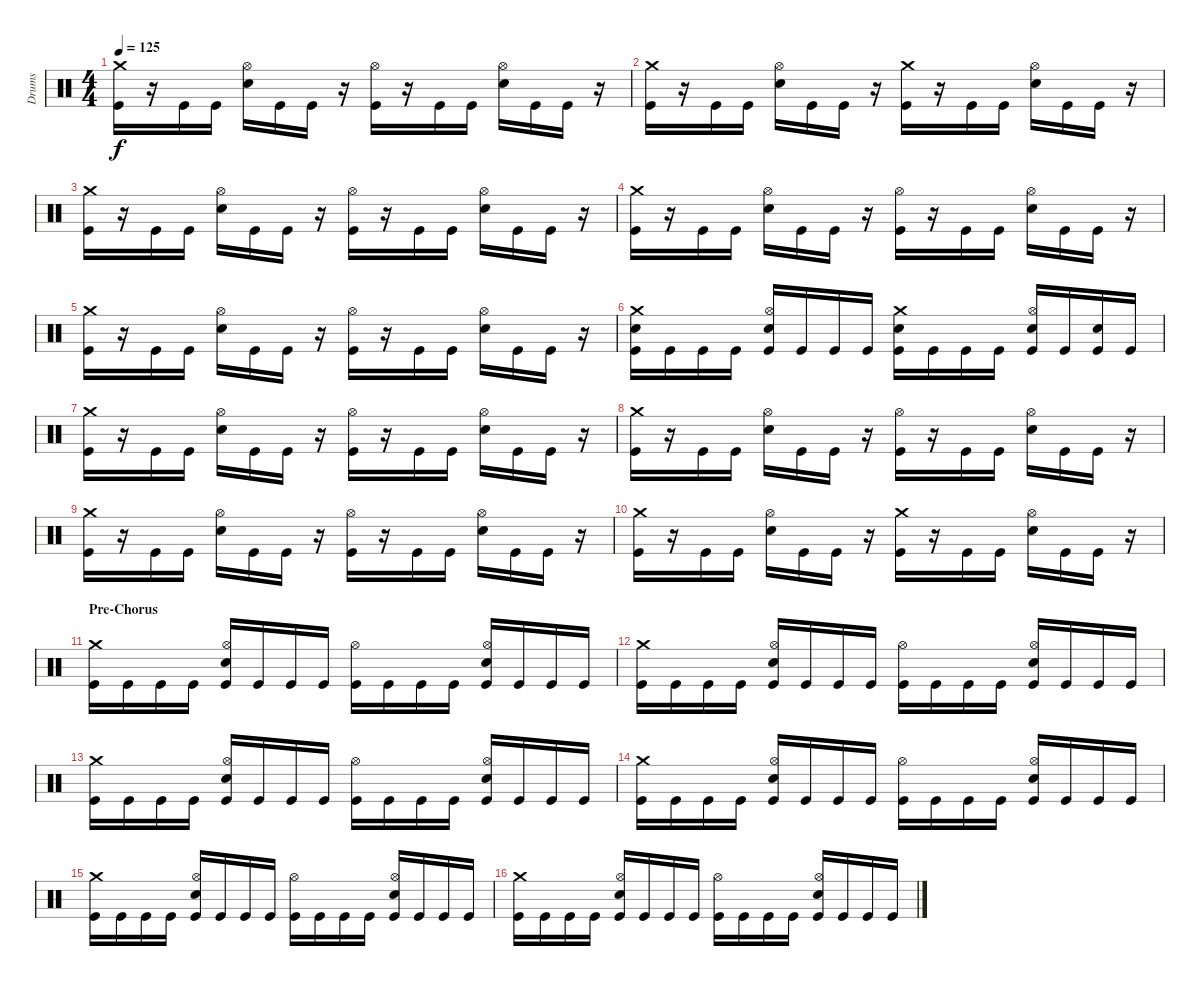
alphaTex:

\track ("Drums" "Drums") {instrument percussion}
\staff {score}
\articulation defaults
\ts (4 4)
\tempo 125
\clef neutral
\ks c
("Crash medium (hit)" "Kick (hit)").16{dy f} r.16 "Kick (hit)".16 "Kick (hit)".16 ("Hi-Hat (open)" "Electric Snare (hit)").16 "Kick (hit)".16 "Kick (hit)".16 r.16 ("Hi-Hat (open)" "Kick (hit)").16 r.16 "Kick (hit)".16 "Kick (hit)".16 ("Hi-Hat (open)" "Electric Snare (hit)").16 "Kick (hit)".16 "Kick (hit)".16 r.16 |
("Crash medium (hit)" "Kick (hit)").16 r.16 "Kick (hit)".16 "Kick (hit)".16 ("Hi-Hat (open)" "Electric Snare (hit)").16 "Kick (hit)".16 "Kick (hit)".16 r.16 ("Crash medium (hit)" "Kick (hit)").16 r.16 "Kick (hit)".16 "Kick (hit)".16 ("Hi-Hat (open)" "Electric Snare (hit)").16 "Kick (hit)".16 "Kick (hit)".16 r.16 |
("Crash medium (hit)" "Kick (hit)").16 r.16 "Kick (hit)".16 "Kick (hit)".16 ("Hi-Hat (open)" "Electric Snare (hit)").16 "Kick (hit)".16 "Kick (hit)".16 r.16 ("Hi-Hat (open)" "Kick (hit)").16 r.16 "Kick (hit)".16 "Kick (hit)".16 ("Hi-Hat (open)" "Electric Snare (hit)").16 "Kick (hit)".16 "Kick (hit)".16 r.16 |
("Crash medium (hit)" "Kick (hit)").16 r.16 "Kick (hit)".16 "Kick (hit)".16 ("Hi-Hat (open)" "Electric Snare (hit)").16 "Kick (hit)".16 "Kick (hit)".16 r.16 ("Hi-Hat (open)" "Kick (hit)").16 r.16 "Kick (hit)".16 "Kick (hit)".16 ("Hi-Hat (open)" "Electric Snare (hit)").16 "Kick (hit)".16 "Kick (hit)".16 r.16 |
("Crash medium (hit)" "Kick (hit)").16 r.16 "Kick (hit)".16 "Kick (hit)".16 ("Hi-Hat (open)" "Electric Snare (hit)").16 "Kick (hit)".16 "Kick (hit)".16 r.16 ("Hi-Hat (open)" "Kick (hit)").16 r.16 "Kick (hit)".16 "Kick (hit)".16 ("Hi-Hat (open)" "Electric Snare (hit)").16 "Kick (hit)".16 "Kick (hit)".16 r.16 |
("Crash medium (hit)" "Electric Snare (hit)" "Kick (hit)").16 "Kick (hit)".16 "Kick (hit)".16 "Kick (hit)".16 ("Hi-Hat (open)" "Electric Snare (hit)" "Kick (hit)").16 "Kick (hit)".16 "Kick (hit)".16 "Kick (hit)".16 ("Crash medium (hit)" "Electric Snare (hit)" "Kick (hit)").16 "Kick (hit)".16 "Kick (hit)".16 "Kick (hit)".16 ("Hi-Hat (open)" "Electric Snare (hit)" "Kick (hit)").16 "Kick (hit)".16 ("Electric Snare (hit)" "Kick (hit)").16 "Kick (hit)".16 |
("Crash medium (hit)" "Kick (hit)").16 r.16 "Kick (hit)".16 "Kick (hit)".16 ("Hi-Hat (open)" "Electric Snare (hit)").16 "Kick (hit)".16 "Kick (hit)".16 r.16 ("Hi-Hat (open)" "Kick (hit)").16 r.16 "Kick (hit)".16 "Kick (hit)".16 ("Hi-Hat (open)" "Electric Snare (hit)").16 "Kick (hit)".16 "Kick (hit)".16 r.16 |
("Crash medium (hit)" "Kick (hit)").16 r.16 "Kick (hit)".16 "Kick (hit)".16 ("Hi-Hat (open)" "Electric Snare (hit)").16 "Kick (hit)".16 "Kick (hit)".16 r.16 ("Hi-Hat (open)" "Kick (hit)").16 r.16 "Kick (hit)".16 "Kick (hit)".16 ("Hi-Hat (open)" "Electric Snare (hit)").16 "Kick (hit)".16 "Kick (hit)".16 r.16 |
("Crash medium (hit)" "Kick (hit)").16 r.16 "Kick (hit)".16 "Kick (hit)".16 ("Hi-Hat (open)" "Electric Snare (hit)").16 "Kick (hit)".16 "Kick (hit)".16 r.16 ("Hi-Hat (open)" "Kick (hit)").16 r.16 "Kick (hit)".16 "Kick (hit)".16 ("Hi-Hat (open)" "Electric Snare (hit)").16 "Kick (hit)".16 "Kick (hit)".16 r.16 |
("Crash medium (hit)" "Kick (hit)").16 r.16 "Kick (hit)".16 "Kick (hit)".16 ("Hi-Hat (open)" "Electric Snare (hit)").16 "Kick (hit)".16 "Kick (hit)".16 r.16 ("Crash medium (hit)" "Kick (hit)").16 r.16 "Kick (hit)".16 "Kick (hit)".16 ("Hi-Hat (open)" "Electric Snare (hit)").16 "Kick (hit)".16 "Kick (hit)".16 r.16 |
\section ("" "Pre-Chorus")
("Crash medium (hit)" "Kick (hit)").16 "Kick (hit)".16 "Kick (hit)".16 "Kick (hit)".16 ("Hi-Hat (open)" "Electric Snare (hit)" "Kick (hit)").16 "Kick (hit)".16 "Kick (hit)".16 "Kick (hit)".16 ("Hi-Hat (open)" "Kick (hit)").16 "Kick (hit)".16 "Kick (hit)".16 "Kick (hit)".16 ("Hi-Hat (open)" "Electric Snare (hit)" "Kick (hit)").16 "Kick (hit)".16 "Kick (hit)".16 "Kick (hit)".16 |
("Crash medium (hit)" "Kick (hit)").16 "Kick (hit)".16 "Kick (hit)".16 "Kick (hit)".16 ("Hi-Hat (open)" "Electric Snare (hit)" "Kick (hit)").16 "Kick (hit)".16 "Kick (hit)".16 "Kick (hit)".16 ("Hi-Hat (open)" "Kick (hit)").16 "Kick (hit)".16 "Kick (hit)".16 "Kick (hit)".16 ("Hi-Hat (open)" "Electric Snare (hit)" "Kick (hit)").16 "Kick (hit)".16 "Kick (hit)".16 "Kick (hit)".16 |
("Crash medium (hit)" "Kick (hit)").16 "Kick (hit)".16 "Kick (hit)".16 "Kick (hit)".16 ("Hi-Hat (open)" "Electric Snare (hit)" "Kick (hit)").16 "Kick (hit)".16 "Kick (hit)".16 "Kick (hit)".16 ("Hi-Hat (open)" "Kick (hit)").16 "Kick (hit)".16 "Kick (hit)".16 "Kick (hit)".16 ("Hi-Hat (open)" "Electric Snare (hit)" "Kick (hit)").16 "Kick (hit)".16 "Kick (hit)".16 "Kick (hit)".16 |
("Crash medium (hit)" "Kick (hit)").16 "Kick (hit)".16 "Kick (hit)".16 "Kick (hit)".16 ("Hi-Hat (open)" "Electric Snare (hit)" "Kick (hit)").16 "Kick (hit)".16 "Kick (hit)".16 "Kick (hit)".16 ("Hi-Hat (open)" "Kick (hit)").16 "Kick (hit)".16 "Kick (hit)".16 "Kick (hit)".16 ("Hi-Hat (open)" "Electric Snare (hit)" "Kick (hit)").16 "Kick (hit)".16 "Kick (hit)".16 "Kick (hit)".16 |
("Crash medium (hit)" "Kick (hit)").16 "Kick (hit)".16 "Kick (hit)".16 "Kick (hit)".16 ("Hi-Hat (open)" "Electric Snare (hit)" "Kick (hit)").16 "Kick (hit)".16 "Kick (hit)".16 "Kick (hit)".16 ("Hi-Hat (open)" "Kick (hit)").16 "Kick (hit)".16 "Kick (hit)".16 "Kick (hit)".16 ("Hi-Hat (open)" "Electric Snare (hit)" "Kick (hit)").16 "Kick (hit)".16 "Kick (hit)".16 "Kick (hit)".16 |
("Crash medium (hit)" "Kick (hit)").16 "Kick (hit)".16 "Kick (hit)".16 "Kick (hit)".16 ("Hi-Hat (open)" "Electric Snare (hit)" "Kick (hit)").16 "Kick (hit)".16 "Kick (hit)".16 "Kick (hit)".16 ("Hi-Hat (open)" "Kick (hit)").16 "Kick (hit)".16 "Kick (hit)".16 "Kick (hit)".16 ("Hi-Hat (open)" "Electric Snare (hit)" "Kick (hit)").16 "Kick (hit)".16 "Kick (hit)".16 "Kick (hit)".16
